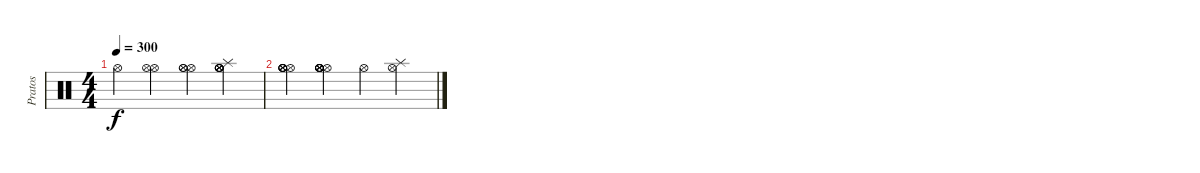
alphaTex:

\track ("Pratos" "Pratos") {instrument percussion}
\staff {score}
\articulation defaults
\ts (4 4)
\tempo 300
\clef neutral
\ks c "Hi-Hat (open)".4{dy f}
("Hi-Hat (open)" "Hi-Hat (open)").4 ("Hi-Hat (open)" "Hi-Hat (open)" "Hi-Hat (open)").4 ("Splash (hit)" "Hi-Hat (open)" "Hi-Hat (open)" "Hi-Hat (open)" "Hi-Hat (open)").4 |
("Hi-Hat (open)" "Hi-Hat (open)" "Hi-Hat (open)" "Hi-Hat (open)" "Hi-Hat (open)").4 ("Hi-Hat (open)" "Hi-Hat (open)" "Hi-Hat (open)" "Hi-Hat (open)" "Hi-Hat (open)" "Hi-Hat (open)").4 "Hi-Hat (open)".4 ("Hi-Hat (open)" "Splash (hit)").4
